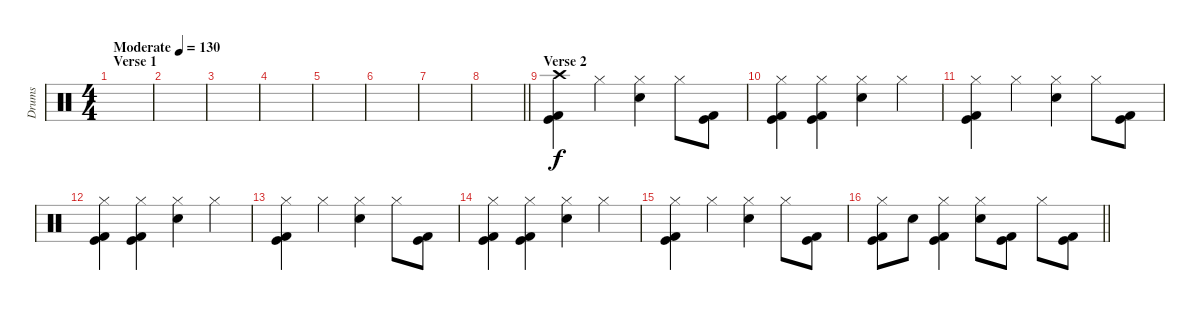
\track ("Drums" "Drums") {instrument percussion}
\staff {score}
\articulation defaults
\ts (4 4)
\section ("" "Verse 1")
\tempo (130 "Moderate")
\clef neutral
\ks c
|
|
|
|
|
|
|
\barLineRight lightlight
|
\section ("" "Verse 2")
("Crash high (hit)" "Kick (hit)" "Kick (hit) 2").4 "Hi-Hat (closed)".4 ("Hi-Hat (closed)" "Electric Snare (hit)").4 "Hi-Hat (closed)".8 ("Kick (hit)" "Kick (hit) 2").8 |
("Hi-Hat (closed)" "Kick (hit)" "Kick (hit) 2").4 ("Hi-Hat (closed)" "Kick (hit)" "Kick (hit) 2").4 ("Hi-Hat (closed)" "Electric Snare (hit)").4 "Hi-Hat (closed)".4 |
("Hi-Hat (closed)" "Kick (hit)" "Kick (hit) 2").4 "Hi-Hat (closed)".4 ("Hi-Hat (closed)" "Electric Snare (hit)").4 "Hi-Hat (closed)".8 ("Kick (hit)" "Kick (hit) 2").8 |
("Hi-Hat (closed)" "Kick (hit)" "Kick (hit) 2").4 ("Hi-Hat (closed)" "Kick (hit)" "Kick (hit) 2").4 ("Hi-Hat (closed)" "Electric Snare (hit)").4 "Hi-Hat (closed)".4 |
("Hi-Hat (closed)" "Kick (hit)" "Kick (hit) 2").4 "Hi-Hat (closed)".4 ("Hi-Hat (closed)" "Electric Snare (hit)").4 "Hi-Hat (closed)".8 ("Kick (hit)" "Kick (hit) 2").8 |
("Hi-Hat (closed)" "Kick (hit)" "Kick (hit) 2").4 ("Hi-Hat (closed)" "Kick (hit)" "Kick (hit) 2").4 ("Hi-Hat (closed)" "Electric Snare (hit)").4 "Hi-Hat (closed)".4 |
("Hi-Hat (closed)" "Kick (hit)" "Kick (hit) 2").4 "Hi-Hat (closed)".4 ("Hi-Hat (closed)" "Electric Snare (hit)").4 "Hi-Hat (closed)".8 ("Kick (hit)" "Kick (hit) 2").8 |
\barLineRight lightlight
("Hi-Hat (closed)" "Kick (hit)" "Kick (hit) 2").8 "Electric Snare (hit)".8 ("Hi-Hat (closed)" "Kick (hit)" "Kick (hit) 2").4 ("Hi-Hat (closed)" "Electric Snare (hit)").8 ("Kick (hit)" "Kick (hit) 2").8 "Hi-Hat (closed)".8 ("Kick (hit)" "Kick (hit) 2").8
